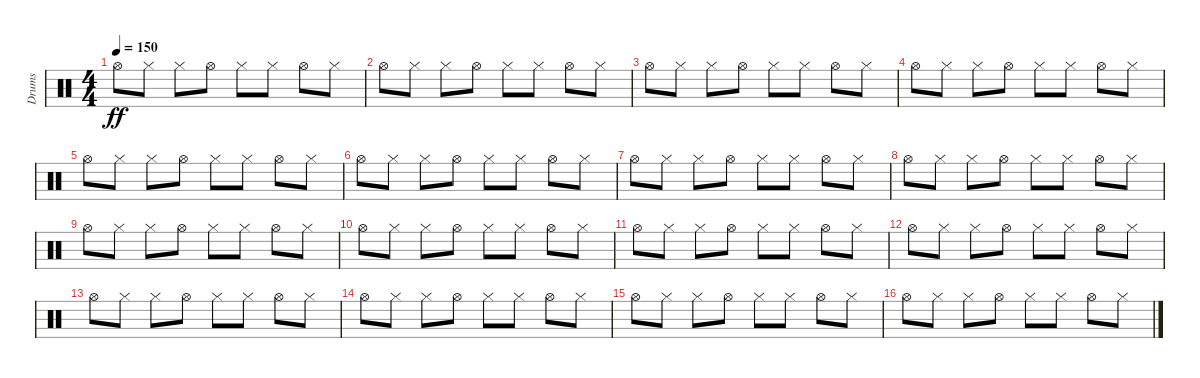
\track ("Drums" "Drums") {instrument percussion}
\staff {score}
\articulation defaults
\ts (4 4)
\tempo 150
\clef neutral
\ks c "Hi-Hat (open)".8{dy ff} "Hi-Hat (closed)".8 "Hi-Hat (closed)".8 "Hi-Hat (open)".8 "Hi-Hat (closed)".8 "Hi-Hat (closed)".8 "Hi-Hat (open)".8 "Hi-Hat (closed)".8
|
"Hi-Hat (open)".8 "Hi-Hat (closed)".8 "Hi-Hat (closed)".8 "Hi-Hat (open)".8 "Hi-Hat (closed)".8 "Hi-Hat (closed)".8 "Hi-Hat (open)".8 "Hi-Hat (closed)".8 |
"Hi-Hat (open)".8 "Hi-Hat (closed)".8 "Hi-Hat (closed)".8 "Hi-Hat (open)".8 "Hi-Hat (closed)".8 "Hi-Hat (closed)".8 "Hi-Hat (open)".8 "Hi-Hat (closed)".8 |
"Hi-Hat (open)".8 "Hi-Hat (closed)".8 "Hi-Hat (closed)".8 "Hi-Hat (open)".8 "Hi-Hat (closed)".8 "Hi-Hat (closed)".8 "Hi-Hat (open)".8 "Hi-Hat (closed)".8 |
"Hi-Hat (open)".8 "Hi-Hat (closed)".8 "Hi-Hat (closed)".8 "Hi-Hat (open)".8 "Hi-Hat (closed)".8 "Hi-Hat (closed)".8 "Hi-Hat (open)".8 "Hi-Hat (closed)".8 |
"Hi-Hat (open)".8 "Hi-Hat (closed)".8 "Hi-Hat (closed)".8 "Hi-Hat (open)".8 "Hi-Hat (closed)".8 "Hi-Hat (closed)".8 "Hi-Hat (open)".8 "Hi-Hat (closed)".8 |
"Hi-Hat (open)".8 "Hi-Hat (closed)".8 "Hi-Hat (closed)".8 "Hi-Hat (open)".8 "Hi-Hat (closed)".8 "Hi-Hat (closed)".8 "Hi-Hat (open)".8 "Hi-Hat (closed)".8 |
"Hi-Hat (open)".8 "Hi-Hat (closed)".8 "Hi-Hat (closed)".8 "Hi-Hat (open)".8 "Hi-Hat (closed)".8 "Hi-Hat (closed)".8 "Hi-Hat (open)".8 "Hi-Hat (closed)".8 |
"Hi-Hat (open)".8 "Hi-Hat (closed)".8 "Hi-Hat (closed)".8 "Hi-Hat (open)".8 "Hi-Hat (closed)".8 "Hi-Hat (closed)".8 "Hi-Hat (open)".8 "Hi-Hat (closed)".8 |
"Hi-Hat (open)".8 "Hi-Hat (closed)".8 "Hi-Hat (closed)".8 "Hi-Hat (open)".8 "Hi-Hat (closed)".8 "Hi-Hat (closed)".8 "Hi-Hat (open)".8 "Hi-Hat (closed)".8 |
"Hi-Hat (open)".8 "Hi-Hat (closed)".8 "Hi-Hat (closed)".8 "Hi-Hat (open)".8 "Hi-Hat (closed)".8 "Hi-Hat (closed)".8 "Hi-Hat (open)".8 "Hi-Hat (closed)".8 |
"Hi-Hat (open)".8 "Hi-Hat (closed)".8 "Hi-Hat (closed)".8 "Hi-Hat (open)".8 "Hi-Hat (closed)".8 "Hi-Hat (closed)".8 "Hi-Hat (open)".8 "Hi-Hat (closed)".8 |
"Hi-Hat (open)".8 "Hi-Hat (closed)".8 "Hi-Hat (closed)".8 "Hi-Hat (open)".8 "Hi-Hat (closed)".8 "Hi-Hat (closed)".8 "Hi-Hat (open)".8 "Hi-Hat (closed)".8 |
"Hi-Hat (open)".8 "Hi-Hat (closed)".8 "Hi-Hat (closed)".8 "Hi-Hat (open)".8 "Hi-Hat (closed)".8 "Hi-Hat (closed)".8 "Hi-Hat (open)".8 "Hi-Hat (closed)".8 |
"Hi-Hat (open)".8 "Hi-Hat (closed)".8 "Hi-Hat (closed)".8 "Hi-Hat (open)".8 "Hi-Hat (closed)".8 "Hi-Hat (closed)".8 "Hi-Hat (open)".8 "Hi-Hat (closed)".8 |
"Hi-Hat (open)".8 "Hi-Hat (closed)".8 "Hi-Hat (closed)".8 "Hi-Hat (open)".8 "Hi-Hat (closed)".8 "Hi-Hat (closed)".8 "Hi-Hat (open)".8 "Hi-Hat (closed)".8
